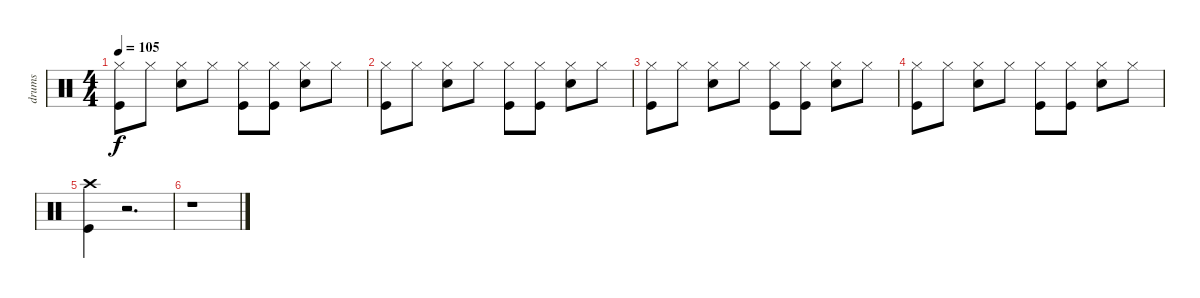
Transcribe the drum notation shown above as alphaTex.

\track ("drums" "drums") {instrument percussion}
\staff {score}
\articulation defaults
\ts (4 4)
\tempo 105
\clef neutral
\ks c
("Hi-Hat (closed)" "Kick (hit)").8{dy f} "Hi-Hat (closed)".8 ("Hi-Hat (closed)" "Snare (hit) 2").8 "Hi-Hat (closed)".8 ("Hi-Hat (closed)" "Kick (hit)").8 ("Hi-Hat (closed)" "Kick (hit)").8 ("Hi-Hat (closed)" "Snare (hit) 2").8 "Hi-Hat (closed)".8 |
("Hi-Hat (closed)" "Kick (hit)").8 "Hi-Hat (closed)".8 ("Hi-Hat (closed)" "Snare (hit) 2").8 "Hi-Hat (closed)".8 ("Hi-Hat (closed)" "Kick (hit)").8 ("Hi-Hat (closed)" "Kick (hit)").8 ("Hi-Hat (closed)" "Snare (hit) 2").8 "Hi-Hat (closed)".8 |
("Hi-Hat (closed)" "Kick (hit)").8 "Hi-Hat (closed)".8 ("Hi-Hat (closed)" "Snare (hit) 2").8 "Hi-Hat (closed)".8 ("Hi-Hat (closed)" "Kick (hit)").8 ("Hi-Hat (closed)" "Kick (hit)").8 ("Hi-Hat (closed)" "Snare (hit) 2").8 "Hi-Hat (closed)".8 |
("Hi-Hat (closed)" "Kick (hit)").8 "Hi-Hat (closed)".8 ("Hi-Hat (closed)" "Snare (hit) 2").8 "Hi-Hat (closed)".8 ("Hi-Hat (closed)" "Kick (hit)").8 ("Hi-Hat (closed)" "Kick (hit)").8 ("Hi-Hat (closed)" "Snare (hit) 2").8 "Hi-Hat (closed)".8 |
("Crash high (hit)" "Kick (hit)").4 r.2{d} |
r.1
